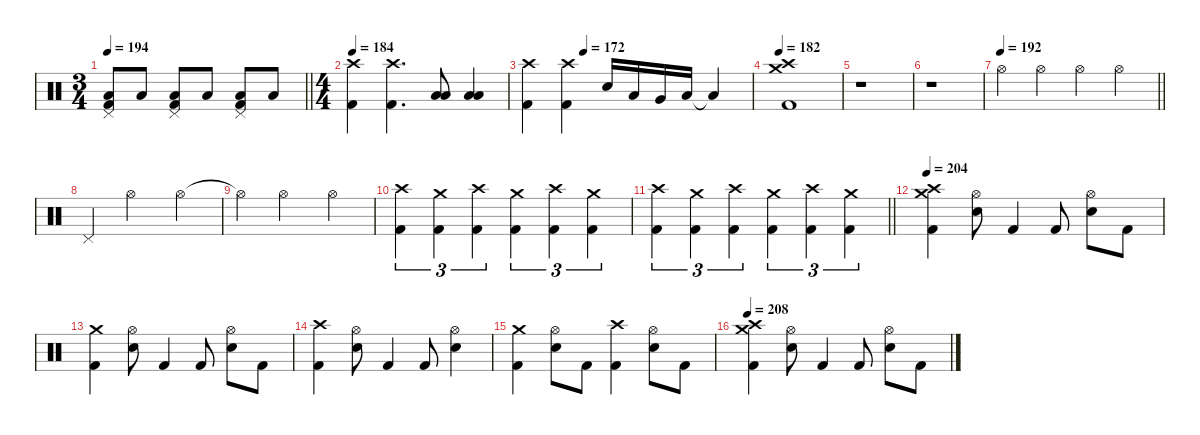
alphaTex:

\defaultSystemsLayout 4
\hideDynamics
\bracketExtendMode nobrackets
\singleTrackTrackNamePolicy hidden
\multiTrackTrackNamePolicy hidden
\firstSystemTrackNameMode fullname
\otherSystemsTrackNameOrientation horizontal
\track ("Drums" "drm.") {defaultSystemsLayout 4 instrument percussion}
\staff {score}
\articulation defaults
\ts (3 4)
\tempo 194
\clef neutral
\barLineRight lightlight
\ks c
("Pedal Hi-Hat (hit)" "Low Floor Tom (hit)" "Kick (hit) 2").8{dy f beam Up} "Low Floor Tom (hit)".8{dy ff beam Up} ("Pedal Hi-Hat (hit)" "Low Floor Tom (hit)" "Kick (hit) 2").8{dy f beam Up} "Low Floor Tom (hit)".8{dy fff beam Up} ("Pedal Hi-Hat (hit)" "Low Floor Tom (hit)" "Kick (hit) 2").8{dy f beam Up} "Low Floor Tom (hit)".8{dy fff beam Up} |
\ts (4 4)
\beaming (8 2 2 2 2)
\tempo 184
("Crash high (hit)" "Kick (hit) 2").4{dy f beam Down} ("Crash high (hit)" "Kick (hit) 2").4{d beam Down} ("Low Floor Tom (hit)" "Low Floor Tom (hit)").8{beam Up} ("Low Floor Tom (hit)" "Low Floor Tom (hit)").4{beam Up} |
\tempo (172 0.25)
("Crash high (hit)" "Kick (hit) 2").4{beam Down} ("Crash high (hit)" "Kick (hit) 2").4{beam Down} "Snare (hit) 2".16{beam Up} "Low Tom (hit)".16{beam Up} "Very Low Tom (hit)".16{beam Up} "Low Floor Tom (hit)".16{beam Up} "Low Floor Tom (hit)"{t}.4{dy mf beam Up} |
\tempo 182
("Crash medium (hit)" "Crash high (hit)" "Kick (hit) 2").1{dy f beam Down} |
r.1{beam Down} |
r.1{beam Down} |
\tempo 192
\barLineRight lightlight "Hi-Hat (open)".4{dy mf beam Down} "Hi-Hat (open)".4{beam Down} "Hi-Hat (open)".4{beam Down} "Hi-Hat (open)".4{beam Down}
|
"Pedal Hi-Hat (hit)".4{beam Up} "Hi-Hat (open)".2{beam Down} "Hi-Hat (open)".4{beam Down} |
"Hi-Hat (open)"{t}.4{beam Down} "Hi-Hat (open)".2{beam Down} "Hi-Hat (open)".4{beam Down} |
("Crash high (hit)" "Kick (hit) 2").4{tu (3 2) dy f beam Down} ("Crash medium (hit)" "Kick (hit) 2").4{tu (3 2) beam Down} ("Crash high (hit)" "Kick (hit) 2").4{tu (3 2) beam Down} ("Crash medium (hit)" "Kick (hit) 2").4{tu (3 2) beam Down} ("Crash high (hit)" "Kick (hit) 2").4{tu (3 2) beam Down} ("Crash medium (hit)" "Kick (hit) 2").4{tu (3 2) beam Down} |
\barLineRight lightlight
("Crash high (hit)" "Kick (hit) 2").4{tu (3 2) beam Down} ("Crash medium (hit)" "Kick (hit) 2").4{tu (3 2) beam Down} ("Crash high (hit)" "Kick (hit) 2").4{tu (3 2) beam Down} ("Crash medium (hit)" "Kick (hit) 2").4{tu (3 2) beam Down} ("Crash high (hit)" "Kick (hit) 2").4{tu (3 2) beam Down} ("Crash medium (hit)" "Kick (hit) 2").4{tu (3 2) beam Down} |
\tempo 204
("Crash high (hit)" "Crash medium (hit)" "Kick (hit) 2").4{beam Down} ("Hi-Hat (open)" "Snare (hit) 2").8{beam Down} "Kick (hit) 2".4{beam Up} "Kick (hit) 2".8{beam Up} ("Hi-Hat (open)" "Snare (hit) 2").8{beam Down} "Kick (hit) 2".8{dy mp beam Down} |
("Crash medium (hit)" "Kick (hit) 2").4{dy f beam Down} ("Hi-Hat (open)" "Snare (hit) 2").8{beam Down} "Kick (hit) 2".4{beam Up} "Kick (hit) 2".8{beam Up} ("Hi-Hat (open)" "Snare (hit) 2").8{beam Down} "Kick (hit) 2".8{dy mp beam Down} |
("Crash high (hit)" "Kick (hit) 2").4{dy f beam Down} ("Hi-Hat (open)" "Snare (hit) 2").8{beam Down} "Kick (hit) 2".4{beam Up} "Kick (hit) 2".8{beam Up} ("Hi-Hat (open)" "Snare (hit) 2").4{beam Down} |
("Crash medium (hit)" "Kick (hit) 2").4{beam Down} ("Hi-Hat (open)" "Snare (hit) 2").8{beam Down} "Kick (hit) 2".8{beam Down} ("Crash high (hit)" "Kick (hit) 2").4{beam Down} ("Hi-Hat (open)" "Snare (hit) 2").8{beam Down} "Kick (hit) 2".8{beam Down} |
\tempo 208
("Crash high (hit)" "Crash medium (hit)" "Kick (hit) 2").4{beam Down} ("Hi-Hat (open)" "Snare (hit) 2").8{beam Down} "Kick (hit) 2".4{beam Up} "Kick (hit) 2".8{beam Up} ("Hi-Hat (open)" "Snare (hit) 2").8{beam Down} "Kick (hit) 2".8{dy mp beam Down}
